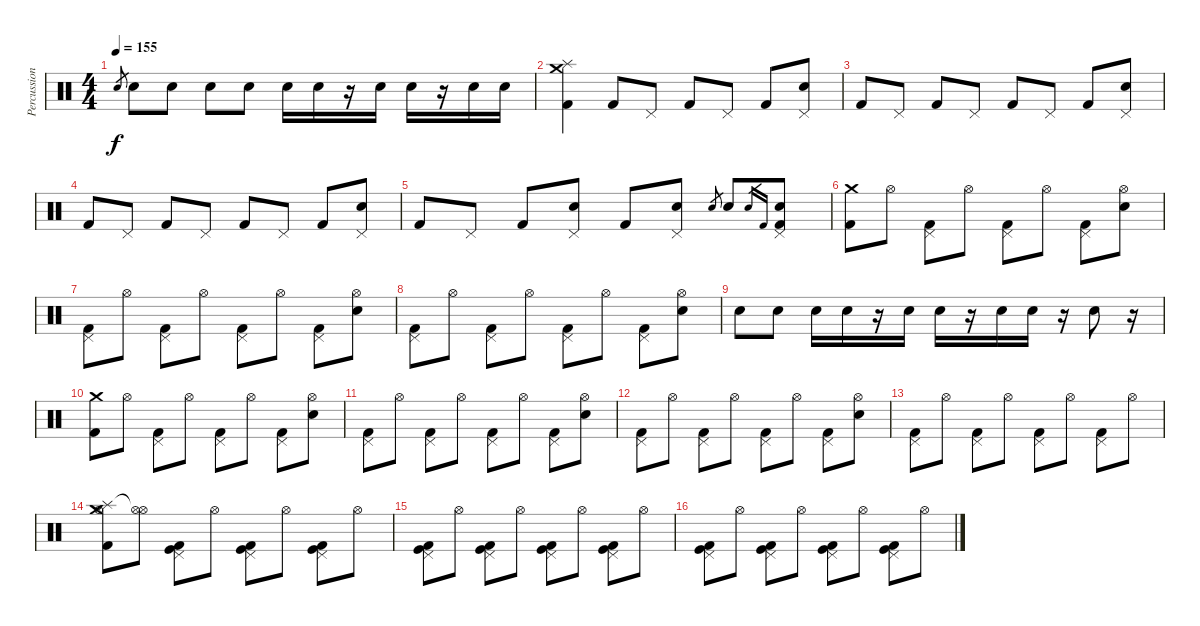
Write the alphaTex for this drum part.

\track ("Percussion" "Percussion") {instrument percussion}
\staff {score}
\articulation defaults
\ts (4 4)
\tempo 155
\clef neutral
\ks c "Snare (hit) 2".8{gr dy f} "Snare (hit) 2".8 "Snare (hit) 2".8 "Snare (hit) 2".8 "Snare (hit) 2".8 "Snare (hit) 2".16 "Snare (hit) 2".16
r.16 "Snare (hit) 2".16 "Snare (hit) 2".16 r.16 "Snare (hit) 2".16 "Snare (hit) 2".16 |
("Splash (hit)" "Crash medium (hit)" "Kick (hit) 2").4 "Kick (hit) 2".8 "Pedal Hi-Hat (hit)".8 "Kick (hit) 2".8 "Pedal Hi-Hat (hit)".8 "Kick (hit) 2".8 ("Pedal Hi-Hat (hit)" "Snare (hit) 2").8 |
"Kick (hit) 2".8 "Pedal Hi-Hat (hit)".8 "Kick (hit) 2".8 "Pedal Hi-Hat (hit)".8 "Kick (hit) 2".8 "Pedal Hi-Hat (hit)".8 "Kick (hit) 2".8 ("Pedal Hi-Hat (hit)" "Snare (hit) 2").8 |
"Kick (hit) 2".8 "Pedal Hi-Hat (hit)".8 "Kick (hit) 2".8 "Pedal Hi-Hat (hit)".8 "Kick (hit) 2".8 "Pedal Hi-Hat (hit)".8 "Kick (hit) 2".8 ("Pedal Hi-Hat (hit)" "Snare (hit) 2").8 |
"Kick (hit) 2".8 "Pedal Hi-Hat (hit)".8 "Kick (hit) 2".8 ("Pedal Hi-Hat (hit)" "Snare (hit) 2").8 "Kick (hit) 2".8 ("Pedal Hi-Hat (hit)" "Snare (hit) 2").8 "Snare (hit) 2".8{gr} "Snare (hit) 2".8 "Snare (hit) 2".16{gr} "Kick (hit) 2".16{gr} ("Pedal Hi-Hat (hit)" "Snare (hit) 2" "Kick (hit) 2").8 |
("Crash medium (hit)" "Kick (hit) 2").8 "Hi-Hat (open)".8 ("Pedal Hi-Hat (hit)" "Kick (hit) 2").8 "Hi-Hat (open)".8 ("Pedal Hi-Hat (hit)" "Kick (hit) 2").8 "Hi-Hat (open)".8 ("Pedal Hi-Hat (hit)" "Kick (hit) 2").8 ("Hi-Hat (open)" "Snare (hit) 2").8 |
("Pedal Hi-Hat (hit)" "Kick (hit) 2").8 "Hi-Hat (open)".8 ("Pedal Hi-Hat (hit)" "Kick (hit) 2").8 "Hi-Hat (open)".8 ("Pedal Hi-Hat (hit)" "Kick (hit) 2").8 "Hi-Hat (open)".8 ("Pedal Hi-Hat (hit)" "Kick (hit) 2").8 ("Hi-Hat (open)" "Snare (hit) 2").8 |
("Pedal Hi-Hat (hit)" "Kick (hit) 2").8 "Hi-Hat (open)".8 ("Pedal Hi-Hat (hit)" "Kick (hit) 2").8 "Hi-Hat (open)".8 ("Pedal Hi-Hat (hit)" "Kick (hit) 2").8 "Hi-Hat (open)".8 ("Pedal Hi-Hat (hit)" "Kick (hit) 2").8 ("Hi-Hat (open)" "Snare (hit) 2").8 |
"Snare (hit) 2".8 "Snare (hit) 2".8 "Snare (hit) 2".16 "Snare (hit) 2".16 r.16 "Snare (hit) 2".16 "Snare (hit) 2".16 r.16 "Snare (hit) 2".16 "Snare (hit) 2".16 r.16 "Snare (hit) 2".8 r.16 |
("Crash medium (hit)" "Kick (hit) 2").8 "Hi-Hat (open)".8 ("Pedal Hi-Hat (hit)" "Kick (hit) 2").8 "Hi-Hat (open)".8 ("Pedal Hi-Hat (hit)" "Kick (hit) 2").8 "Hi-Hat (open)".8 ("Pedal Hi-Hat (hit)" "Kick (hit) 2").8 ("Hi-Hat (open)" "Snare (hit) 2").8 |
("Pedal Hi-Hat (hit)" "Kick (hit) 2").8 "Hi-Hat (open)".8 ("Pedal Hi-Hat (hit)" "Kick (hit) 2").8 "Hi-Hat (open)".8 ("Pedal Hi-Hat (hit)" "Kick (hit) 2").8 "Hi-Hat (open)".8 ("Pedal Hi-Hat (hit)" "Kick (hit) 2").8 ("Hi-Hat (open)" "Snare (hit) 2").8 |
("Pedal Hi-Hat (hit)" "Kick (hit) 2").8{volume 11} "Hi-Hat (open)".8 ("Pedal Hi-Hat (hit)" "Kick (hit) 2").8 "Hi-Hat (open)".8 ("Pedal Hi-Hat (hit)" "Kick (hit) 2").8 "Hi-Hat (open)".8 ("Pedal Hi-Hat (hit)" "Kick (hit) 2").8 ("Hi-Hat (open)" "Snare (hit) 2").8 |
("Pedal Hi-Hat (hit)" "Kick (hit) 2").8 "Hi-Hat (open)".8 ("Pedal Hi-Hat (hit)" "Kick (hit) 2").8 "Hi-Hat (open)".8 ("Pedal Hi-Hat (hit)" "Kick (hit) 2").8 "Hi-Hat (open)".8 ("Pedal Hi-Hat (hit)" "Kick (hit) 2").8 "Hi-Hat (open)".8 |
("Splash (hit)" "Kick (hit) 2" "Hi-Hat (open)" "Crash medium (hit)").8 ("Hi-Hat (open)"{t} "Hi-Hat (open)").8 ("Pedal Hi-Hat (hit)" "Kick (hit)" "Kick (hit) 2").8 "Hi-Hat (open)".8 ("Pedal Hi-Hat (hit)" "Kick (hit)" "Kick (hit) 2").8 "Hi-Hat (open)".8 ("Pedal Hi-Hat (hit)" "Kick (hit)" "Kick (hit) 2").8 "Hi-Hat (open)".8 |
("Pedal Hi-Hat (hit)" "Kick (hit)" "Kick (hit) 2").8 "Hi-Hat (open)".8 ("Pedal Hi-Hat (hit)" "Kick (hit)" "Kick (hit) 2").8 "Hi-Hat (open)".8 ("Pedal Hi-Hat (hit)" "Kick (hit)" "Kick (hit) 2").8 "Hi-Hat (open)".8 ("Pedal Hi-Hat (hit)" "Kick (hit)" "Kick (hit) 2").8 "Hi-Hat (open)".8 |
("Pedal Hi-Hat (hit)" "Kick (hit)" "Kick (hit) 2").8 "Hi-Hat (open)".8 ("Pedal Hi-Hat (hit)" "Kick (hit)" "Kick (hit) 2").8 "Hi-Hat (open)".8 ("Pedal Hi-Hat (hit)" "Kick (hit)" "Kick (hit) 2").8 "Hi-Hat (open)".8 ("Pedal Hi-Hat (hit)" "Kick (hit)" "Kick (hit) 2").8 "Hi-Hat (open)".8
